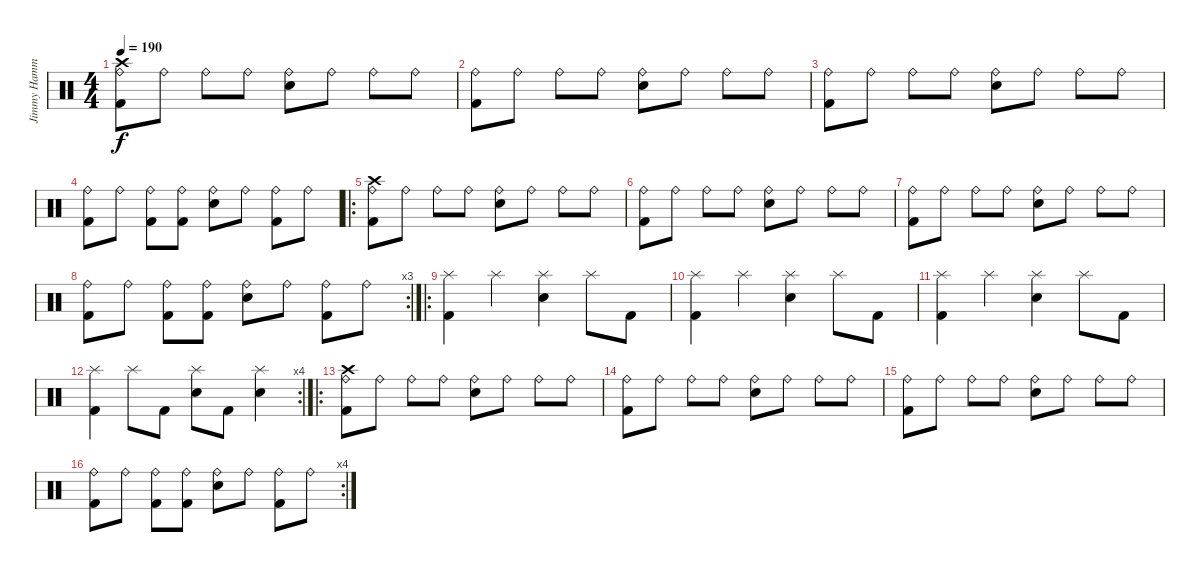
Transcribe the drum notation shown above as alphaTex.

\track ("Jimmy Hammer" "Jimmy Hamm") {instrument percussion}
\staff {score}
\articulation defaults
\ts (4 4)
\tempo 190
\clef neutral
\ks c
("Kick (hit) 2" "Ride (bell)" "Crash high (hit)").8{dy f volume 4} "Ride (bell)".8{volume 14} "Ride (bell)".8 "Ride (bell)".8 ("Snare (hit) 2" "Ride (bell)").8 "Ride (bell)".8 "Ride (bell)".8 "Ride (bell)".8 |
("Kick (hit) 2" "Ride (bell)").8 "Ride (bell)".8 "Ride (bell)".8 "Ride (bell)".8 ("Snare (hit) 2" "Ride (bell)").8 "Ride (bell)".8 "Ride (bell)".8 "Ride (bell)".8 |
("Kick (hit) 2" "Ride (bell)").8 "Ride (bell)".8 "Ride (bell)".8 "Ride (bell)".8 ("Snare (hit) 2" "Ride (bell)").8 "Ride (bell)".8 "Ride (bell)".8 "Ride (bell)".8 |
("Kick (hit) 2" "Ride (bell)").8 "Ride (bell)".8 ("Kick (hit) 2" "Ride (bell)").8 ("Kick (hit) 2" "Ride (bell)").8 ("Snare (hit) 2" "Ride (bell)").8 "Ride (bell)".8 ("Kick (hit) 2" "Ride (bell)").8 "Ride (bell)".8 |
\ro
("Kick (hit) 2" "Ride (bell)" "Crash high (hit)").8 "Ride (bell)".8 "Ride (bell)".8 "Ride (bell)".8 ("Snare (hit) 2" "Ride (bell)").8 "Ride (bell)".8 "Ride (bell)".8 "Ride (bell)".8 |
("Kick (hit) 2" "Ride (bell)").8 "Ride (bell)".8 "Ride (bell)".8 "Ride (bell)".8 ("Snare (hit) 2" "Ride (bell)").8 "Ride (bell)".8 "Ride (bell)".8 "Ride (bell)".8 |
("Kick (hit) 2" "Ride (bell)").8 "Ride (bell)".8 "Ride (bell)".8 "Ride (bell)".8 ("Snare (hit) 2" "Ride (bell)").8 "Ride (bell)".8 "Ride (bell)".8 "Ride (bell)".8 |
\rc 3
("Kick (hit) 2" "Ride (bell)").8 "Ride (bell)".8 ("Kick (hit) 2" "Ride (bell)").8 ("Kick (hit) 2" "Ride (bell)").8 ("Snare (hit) 2" "Ride (bell)").8 "Ride (bell)".8 ("Kick (hit) 2" "Ride (bell)").8 "Ride (bell)".8 |
\ro
("Kick (hit) 2" "Splash (hit)").4 "Splash (hit)".4 ("Snare (hit) 2" "Splash (hit)").4 "Splash (hit)".8 "Kick (hit) 2".8 |
("Kick (hit) 2" "Splash (hit)").4 "Splash (hit)".4 ("Snare (hit) 2" "Splash (hit)").4 "Splash (hit)".8 "Kick (hit) 2".8 |
("Kick (hit) 2" "Splash (hit)").4 "Splash (hit)".4 ("Snare (hit) 2" "Splash (hit)").4 "Splash (hit)".8 "Kick (hit) 2".8 |
\rc 4
("Kick (hit) 2" "Splash (hit)").4 "Splash (hit)".8 "Kick (hit) 2".8 ("Snare (hit) 2" "Splash (hit)").8 "Kick (hit) 2".8 ("Snare (hit) 2" "Splash (hit)").4 |
\ro
("Kick (hit) 2" "Ride (bell)" "Crash high (hit)").8 "Ride (bell)".8 "Ride (bell)".8 "Ride (bell)".8 ("Snare (hit) 2" "Ride (bell)").8 "Ride (bell)".8 "Ride (bell)".8 "Ride (bell)".8 |
("Kick (hit) 2" "Ride (bell)").8 "Ride (bell)".8 "Ride (bell)".8 "Ride (bell)".8 ("Snare (hit) 2" "Ride (bell)").8 "Ride (bell)".8 "Ride (bell)".8 "Ride (bell)".8 |
("Kick (hit) 2" "Ride (bell)").8 "Ride (bell)".8 "Ride (bell)".8 "Ride (bell)".8 ("Snare (hit) 2" "Ride (bell)").8 "Ride (bell)".8 "Ride (bell)".8 "Ride (bell)".8 |
\rc 4
("Kick (hit) 2" "Ride (bell)").8 "Ride (bell)".8 ("Kick (hit) 2" "Ride (bell)").8 ("Kick (hit) 2" "Ride (bell)").8 ("Snare (hit) 2" "Ride (bell)").8 "Ride (bell)".8 ("Kick (hit) 2" "Ride (bell)").8 "Ride (bell)".8
